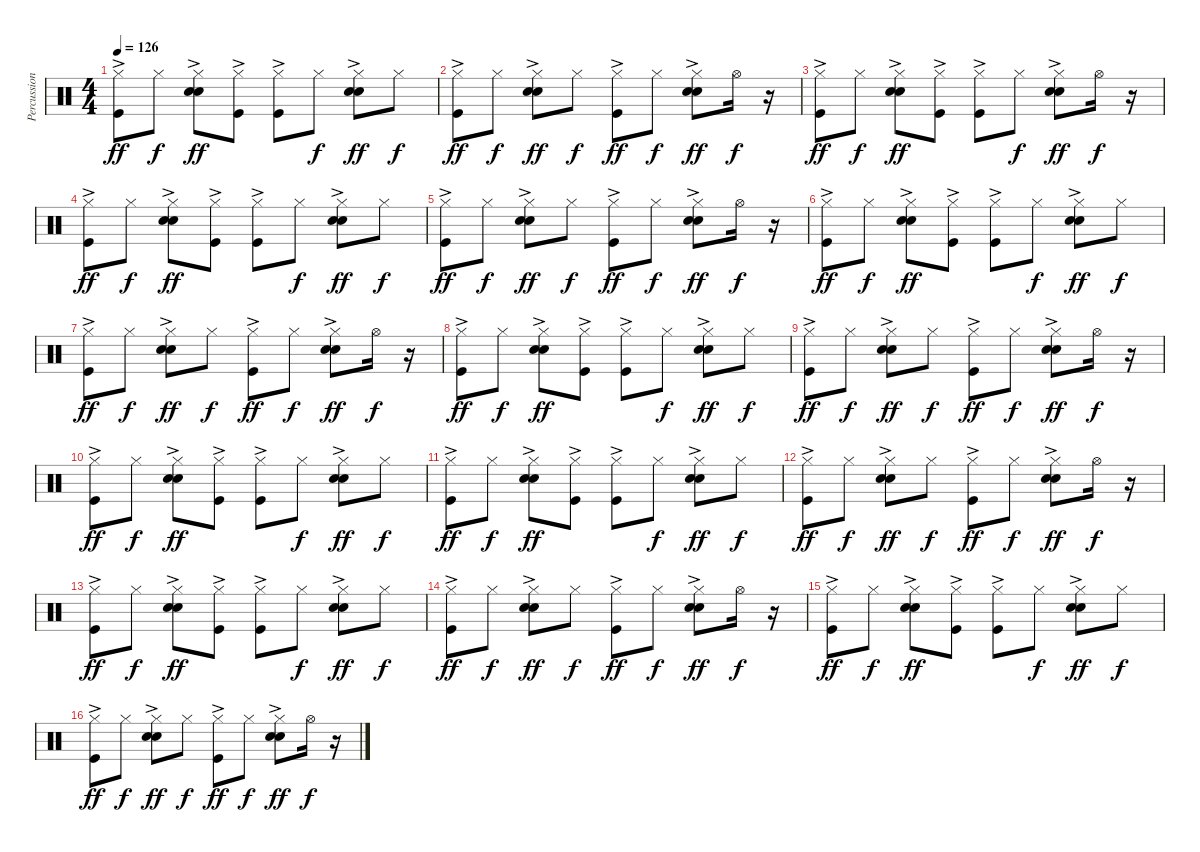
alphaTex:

\track ("Percussion" "Percussion") {instrument percussion}
\staff {score}
\articulation defaults
\ts (4 4)
\tempo 126
\clef neutral
\ks c
("Hi-Hat (closed)" "Kick (hit)"{ac}).8{dy ff} "Hi-Hat (closed)".8{dy f} ("Hi-Hat (closed)" "Hand Clap (hit)"{ac} "Snare (hit) 2"{ac}).8{dy ff} ("Hi-Hat (closed)" "Kick (hit)"{ac}).8 ("Hi-Hat (closed)" "Kick (hit)"{ac}).8 "Hi-Hat (closed)".8{dy f} ("Hi-Hat (closed)" "Hand Clap (hit)"{ac} "Snare (hit) 2"{ac}).8{dy ff} "Hi-Hat (closed)".8{dy f} |
("Hi-Hat (closed)" "Kick (hit)"{ac}).8{dy ff} "Hi-Hat (closed)".8{dy f} ("Hi-Hat (closed)" "Hand Clap (hit)"{ac} "Snare (hit) 2"{ac}).8{dy ff} "Hi-Hat (closed)".8{dy f} ("Hi-Hat (closed)" "Kick (hit)"{ac}).8{dy ff} "Hi-Hat (closed)".8{dy f} ("Hi-Hat (closed)" "Hand Clap (hit)"{ac} "Snare (hit) 2"{ac}).8{dy ff} "Hi-Hat (open)".16{dy f} r.16 |
("Hi-Hat (closed)" "Kick (hit)"{ac}).8{dy ff} "Hi-Hat (closed)".8{dy f} ("Hi-Hat (closed)" "Hand Clap (hit)"{ac} "Snare (hit) 2"{ac}).8{dy ff} ("Hi-Hat (closed)" "Kick (hit)"{ac}).8 ("Hi-Hat (closed)" "Kick (hit)"{ac}).8 "Hi-Hat (closed)".8{dy f} ("Hi-Hat (closed)" "Hand Clap (hit)"{ac} "Snare (hit) 2"{ac}).8{dy ff} "Hi-Hat (open)".16{dy f} r.16 |
("Hi-Hat (closed)" "Kick (hit)"{ac}).8{dy ff} "Hi-Hat (closed)".8{dy f} ("Hi-Hat (closed)" "Hand Clap (hit)"{ac} "Snare (hit) 2"{ac}).8{dy ff} ("Hi-Hat (closed)" "Kick (hit)"{ac}).8 ("Hi-Hat (closed)" "Kick (hit)"{ac}).8 "Hi-Hat (closed)".8{dy f} ("Hi-Hat (closed)" "Hand Clap (hit)"{ac} "Snare (hit) 2"{ac}).8{dy ff} "Hi-Hat (closed)".8{dy f} |
("Hi-Hat (closed)" "Kick (hit)"{ac}).8{dy ff} "Hi-Hat (closed)".8{dy f} ("Hi-Hat (closed)" "Hand Clap (hit)"{ac} "Snare (hit) 2"{ac}).8{dy ff} "Hi-Hat (closed)".8{dy f} ("Hi-Hat (closed)" "Kick (hit)"{ac}).8{dy ff} "Hi-Hat (closed)".8{dy f} ("Hi-Hat (closed)" "Hand Clap (hit)"{ac} "Snare (hit) 2"{ac}).8{dy ff} "Hi-Hat (open)".16{dy f} r.16 |
("Hi-Hat (closed)" "Kick (hit)"{ac}).8{dy ff} "Hi-Hat (closed)".8{dy f} ("Hi-Hat (closed)" "Hand Clap (hit)"{ac} "Snare (hit) 2"{ac}).8{dy ff} ("Hi-Hat (closed)" "Kick (hit)"{ac}).8 ("Hi-Hat (closed)" "Kick (hit)"{ac}).8 "Hi-Hat (closed)".8{dy f} ("Hi-Hat (closed)" "Hand Clap (hit)"{ac} "Snare (hit) 2"{ac}).8{dy ff} "Hi-Hat (closed)".8{dy f} |
("Hi-Hat (closed)" "Kick (hit)"{ac}).8{dy ff} "Hi-Hat (closed)".8{dy f} ("Hi-Hat (closed)" "Hand Clap (hit)"{ac} "Snare (hit) 2"{ac}).8{dy ff} "Hi-Hat (closed)".8{dy f} ("Hi-Hat (closed)" "Kick (hit)"{ac}).8{dy ff} "Hi-Hat (closed)".8{dy f} ("Hi-Hat (closed)" "Hand Clap (hit)"{ac} "Snare (hit) 2"{ac}).8{dy ff} "Hi-Hat (open)".16{dy f} r.16 |
("Hi-Hat (closed)" "Kick (hit)"{ac}).8{dy ff} "Hi-Hat (closed)".8{dy f} ("Hi-Hat (closed)" "Hand Clap (hit)"{ac} "Snare (hit) 2"{ac}).8{dy ff} ("Hi-Hat (closed)" "Kick (hit)"{ac}).8 ("Hi-Hat (closed)" "Kick (hit)"{ac}).8 "Hi-Hat (closed)".8{dy f} ("Hi-Hat (closed)" "Hand Clap (hit)"{ac} "Snare (hit) 2"{ac}).8{dy ff} "Hi-Hat (closed)".8{dy f} |
("Hi-Hat (closed)" "Kick (hit)"{ac}).8{dy ff} "Hi-Hat (closed)".8{dy f} ("Hi-Hat (closed)" "Hand Clap (hit)"{ac} "Snare (hit) 2"{ac}).8{dy ff} "Hi-Hat (closed)".8{dy f} ("Hi-Hat (closed)" "Kick (hit)"{ac}).8{dy ff} "Hi-Hat (closed)".8{dy f} ("Hi-Hat (closed)" "Hand Clap (hit)"{ac} "Snare (hit) 2"{ac}).8{dy ff} "Hi-Hat (open)".16{dy f} r.16 |
("Hi-Hat (closed)" "Kick (hit)"{ac}).8{dy ff} "Hi-Hat (closed)".8{dy f} ("Hi-Hat (closed)" "Hand Clap (hit)"{ac} "Snare (hit) 2"{ac}).8{dy ff} ("Hi-Hat (closed)" "Kick (hit)"{ac}).8 ("Hi-Hat (closed)" "Kick (hit)"{ac}).8 "Hi-Hat (closed)".8{dy f} ("Hi-Hat (closed)" "Hand Clap (hit)"{ac} "Snare (hit) 2"{ac}).8{dy ff} "Hi-Hat (closed)".8{dy f} |
("Hi-Hat (closed)" "Kick (hit)"{ac}).8{dy ff} "Hi-Hat (closed)".8{dy f} ("Hi-Hat (closed)" "Hand Clap (hit)"{ac} "Snare (hit) 2"{ac}).8{dy ff} ("Hi-Hat (closed)" "Kick (hit)"{ac}).8 ("Hi-Hat (closed)" "Kick (hit)"{ac}).8 "Hi-Hat (closed)".8{dy f} ("Hi-Hat (closed)" "Hand Clap (hit)"{ac} "Snare (hit) 2"{ac}).8{dy ff} "Hi-Hat (closed)".8{dy f} |
("Hi-Hat (closed)" "Kick (hit)"{ac}).8{dy ff} "Hi-Hat (closed)".8{dy f} ("Hi-Hat (closed)" "Hand Clap (hit)"{ac} "Snare (hit) 2"{ac}).8{dy ff} "Hi-Hat (closed)".8{dy f} ("Hi-Hat (closed)" "Kick (hit)"{ac}).8{dy ff} "Hi-Hat (closed)".8{dy f} ("Hi-Hat (closed)" "Hand Clap (hit)"{ac} "Snare (hit) 2"{ac}).8{dy ff} "Hi-Hat (open)".16{dy f} r.16 |
("Hi-Hat (closed)" "Kick (hit)"{ac}).8{dy ff} "Hi-Hat (closed)".8{dy f} ("Hi-Hat (closed)" "Hand Clap (hit)"{ac} "Snare (hit) 2"{ac}).8{dy ff} ("Hi-Hat (closed)" "Kick (hit)"{ac}).8 ("Hi-Hat (closed)" "Kick (hit)"{ac}).8 "Hi-Hat (closed)".8{dy f} ("Hi-Hat (closed)" "Hand Clap (hit)"{ac} "Snare (hit) 2"{ac}).8{dy ff} "Hi-Hat (closed)".8{dy f} |
("Hi-Hat (closed)" "Kick (hit)"{ac}).8{dy ff} "Hi-Hat (closed)".8{dy f} ("Hi-Hat (closed)" "Hand Clap (hit)"{ac} "Snare (hit) 2"{ac}).8{dy ff} "Hi-Hat (closed)".8{dy f} ("Hi-Hat (closed)" "Kick (hit)"{ac}).8{dy ff} "Hi-Hat (closed)".8{dy f} ("Hi-Hat (closed)" "Hand Clap (hit)"{ac} "Snare (hit) 2"{ac}).8{dy ff} "Hi-Hat (open)".16{dy f} r.16 |
("Hi-Hat (closed)" "Kick (hit)"{ac}).8{dy ff} "Hi-Hat (closed)".8{dy f} ("Hi-Hat (closed)" "Hand Clap (hit)"{ac} "Snare (hit) 2"{ac}).8{dy ff} ("Hi-Hat (closed)" "Kick (hit)"{ac}).8 ("Hi-Hat (closed)" "Kick (hit)"{ac}).8 "Hi-Hat (closed)".8{dy f} ("Hi-Hat (closed)" "Hand Clap (hit)"{ac} "Snare (hit) 2"{ac}).8{dy ff} "Hi-Hat (closed)".8{dy f} |
("Hi-Hat (closed)" "Kick (hit)"{ac}).8{dy ff} "Hi-Hat (closed)".8{dy f} ("Hi-Hat (closed)" "Hand Clap (hit)"{ac} "Snare (hit) 2"{ac}).8{dy ff} "Hi-Hat (closed)".8{dy f} ("Hi-Hat (closed)" "Kick (hit)"{ac}).8{dy ff} "Hi-Hat (closed)".8{dy f} ("Hi-Hat (closed)" "Hand Clap (hit)"{ac} "Snare (hit) 2"{ac}).8{dy ff} "Hi-Hat (open)".16{dy f} r.16
